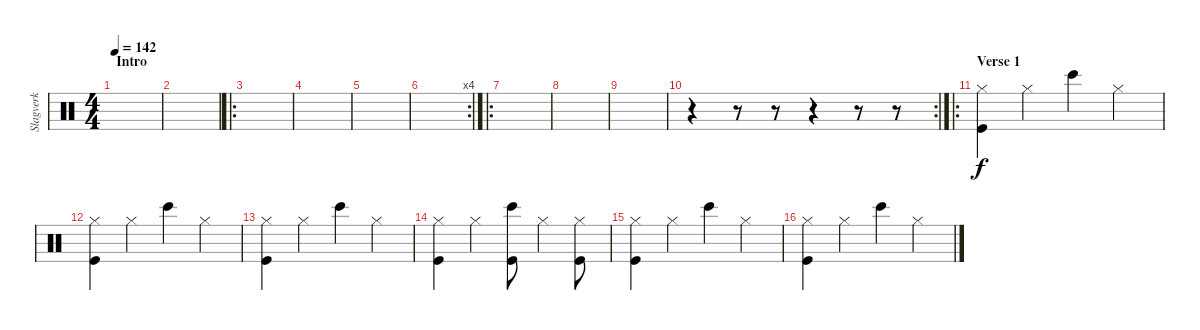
\track ("Slagverk" "Slagverk") {instrument percussion}
\staff {score}
\articulation defaults
\ts (4 4)
\section ("" "Intro")
\tempo 142
\clef neutral
\ks c
|
|
\ro
|
|
|
\rc 4
|
\ro
|
|
|
\rc 2
r.4 r.8 r.8 r.4 r.8 r.8 |
\ro
\section ("" "Verse 1")
("Hi-Hat (closed)" "Kick (hit)").4 "Hi-Hat (closed)".4 "Bongo High (hit)".4 "Hi-Hat (closed)".4 |
("Hi-Hat (closed)" "Kick (hit)").4 "Hi-Hat (closed)".4 "Bongo High (hit)".4 "Hi-Hat (closed)".4 |
("Hi-Hat (closed)" "Kick (hit)").4 "Hi-Hat (closed)".4 "Bongo High (hit)".4 "Hi-Hat (closed)".4 |
("Hi-Hat (closed)" "Kick (hit)").4 "Hi-Hat (closed)".4 ("Bongo High (hit)" "Kick (hit)").8 "Hi-Hat (closed)".4 ("Hi-Hat (closed)" "Kick (hit)").8 |
("Hi-Hat (closed)" "Kick (hit)").4 "Hi-Hat (closed)".4 "Bongo High (hit)".4 "Hi-Hat (closed)".4 |
("Hi-Hat (closed)" "Kick (hit)").4 "Hi-Hat (closed)".4 "Bongo High (hit)".4 "Hi-Hat (closed)".4
